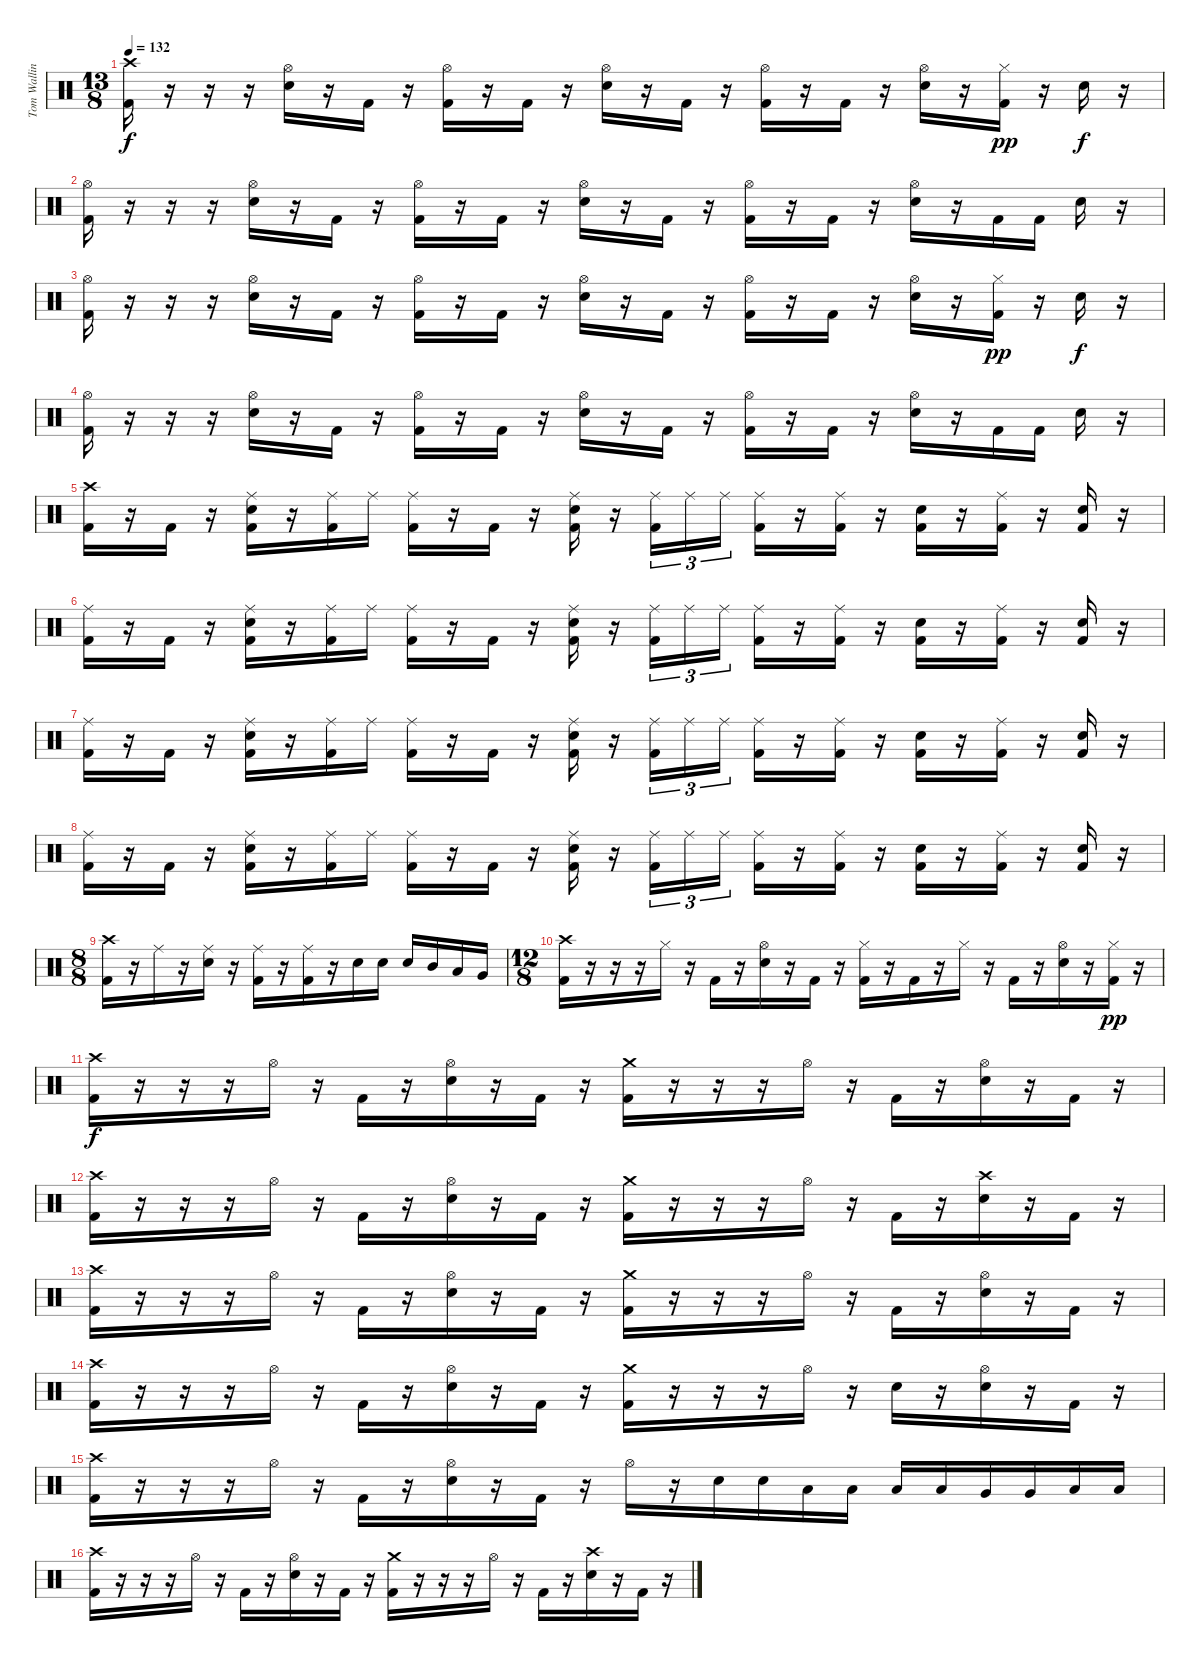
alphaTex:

\track ("Tom Walling [Drums]" "Tom Wallin") {instrument percussion}
\staff {score}
\articulation defaults
\ts (13 8)
\tempo 132
\clef neutral
\ks c
("Crash high (hit)" "Kick (hit) 2").16{dy f} r.16 r.16 r.16 ("Hi-Hat (open)" "Electric Snare (hit)").16 r.16 "Kick (hit) 2".16 r.16 ("Hi-Hat (open)" "Kick (hit) 2").16 r.16 "Kick (hit) 2".16 r.16 ("Hi-Hat (open)" "Electric Snare (hit)").16 r.16 "Kick (hit) 2".16 r.16 ("Hi-Hat (open)" "Kick (hit) 2").16 r.16 "Kick (hit) 2".16 r.16 ("Hi-Hat (open)" "Electric Snare (hit)").16 r.16 ("Hi-Hat (closed)" "Kick (hit) 2").16{dy pp} r.16 "Electric Snare (hit)".16{dy f} r.16 |
("Hi-Hat (open)" "Kick (hit) 2").16 r.16 r.16 r.16 ("Hi-Hat (open)" "Electric Snare (hit)").16 r.16 "Kick (hit) 2".16 r.16 ("Hi-Hat (open)" "Kick (hit) 2").16 r.16 "Kick (hit) 2".16 r.16 ("Hi-Hat (open)" "Electric Snare (hit)").16 r.16 "Kick (hit) 2".16 r.16 ("Hi-Hat (open)" "Kick (hit) 2").16 r.16 "Kick (hit) 2".16 r.16 ("Hi-Hat (open)" "Electric Snare (hit)").16 r.16 "Kick (hit) 2".16 "Kick (hit) 2".16 "Electric Snare (hit)".16 r.16 |
("Hi-Hat (open)" "Kick (hit) 2").16 r.16 r.16 r.16 ("Hi-Hat (open)" "Electric Snare (hit)").16 r.16 "Kick (hit) 2".16 r.16 ("Hi-Hat (open)" "Kick (hit) 2").16 r.16 "Kick (hit) 2".16 r.16 ("Hi-Hat (open)" "Electric Snare (hit)").16 r.16 "Kick (hit) 2".16 r.16 ("Hi-Hat (open)" "Kick (hit) 2").16 r.16 "Kick (hit) 2".16 r.16 ("Hi-Hat (open)" "Electric Snare (hit)").16 r.16 ("Hi-Hat (closed)" "Kick (hit) 2").16{dy pp} r.16 "Electric Snare (hit)".16{dy f} r.16 |
("Hi-Hat (open)" "Kick (hit) 2").16 r.16 r.16 r.16 ("Hi-Hat (open)" "Electric Snare (hit)").16 r.16 "Kick (hit) 2".16 r.16 ("Hi-Hat (open)" "Kick (hit) 2").16 r.16 "Kick (hit) 2".16 r.16 ("Hi-Hat (open)" "Electric Snare (hit)").16 r.16 "Kick (hit) 2".16 r.16 ("Hi-Hat (open)" "Kick (hit) 2").16 r.16 "Kick (hit) 2".16 r.16 ("Hi-Hat (open)" "Electric Snare (hit)").16 r.16 "Kick (hit) 2".16 "Kick (hit) 2".16 "Electric Snare (hit)".16 r.16 |
("Crash high (hit)" "Kick (hit) 2").16 r.16 "Kick (hit) 2".16 r.16 ("Ride (middle)" "Electric Snare (hit)" "Kick (hit) 2").16 r.16 ("Ride (middle)" "Kick (hit) 2").16 "Ride (middle)".16 ("Ride (middle)" "Kick (hit) 2").16 r.16 "Kick (hit) 2".16 r.16 ("Ride (middle)" "Electric Snare (hit)" "Kick (hit) 2").16 r.16 ("Ride (middle)" "Kick (hit) 2").16{tu (3 2)} "Ride (middle)".16{tu (3 2)} "Ride (middle)".16{tu (3 2)} ("Ride (middle)" "Kick (hit) 2").16 r.16 ("Ride (middle)" "Kick (hit) 2").16 r.16 ("Electric Snare (hit)" "Kick (hit) 2").16 r.16 ("Ride (middle)" "Kick (hit) 2").16 r.16 ("Electric Snare (hit)" "Kick (hit) 2").16 r.16 |
("Ride (middle)" "Kick (hit) 2").16 r.16 "Kick (hit) 2".16 r.16 ("Ride (middle)" "Electric Snare (hit)" "Kick (hit) 2").16 r.16 ("Ride (middle)" "Kick (hit) 2").16 "Ride (middle)".16 ("Ride (middle)" "Kick (hit) 2").16 r.16 "Kick (hit) 2".16 r.16 ("Ride (middle)" "Electric Snare (hit)" "Kick (hit) 2").16 r.16 ("Ride (middle)" "Kick (hit) 2").16{tu (3 2)} "Ride (middle)".16{tu (3 2)} "Ride (middle)".16{tu (3 2)} ("Ride (middle)" "Kick (hit) 2").16 r.16 ("Ride (middle)" "Kick (hit) 2").16 r.16 ("Electric Snare (hit)" "Kick (hit) 2").16 r.16 ("Ride (middle)" "Kick (hit) 2").16 r.16 ("Electric Snare (hit)" "Kick (hit) 2").16 r.16 |
("Ride (middle)" "Kick (hit) 2").16 r.16 "Kick (hit) 2".16 r.16 ("Ride (middle)" "Electric Snare (hit)" "Kick (hit) 2").16 r.16 ("Ride (middle)" "Kick (hit) 2").16 "Ride (middle)".16 ("Ride (middle)" "Kick (hit) 2").16 r.16 "Kick (hit) 2".16 r.16 ("Ride (middle)" "Electric Snare (hit)" "Kick (hit) 2").16 r.16 ("Ride (middle)" "Kick (hit) 2").16{tu (3 2)} "Ride (middle)".16{tu (3 2)} "Ride (middle)".16{tu (3 2)} ("Ride (middle)" "Kick (hit) 2").16 r.16 ("Ride (middle)" "Kick (hit) 2").16 r.16 ("Electric Snare (hit)" "Kick (hit) 2").16 r.16 ("Ride (middle)" "Kick (hit) 2").16 r.16 ("Electric Snare (hit)" "Kick (hit) 2").16 r.16 |
("Ride (middle)" "Kick (hit) 2").16 r.16 "Kick (hit) 2".16 r.16 ("Ride (middle)" "Electric Snare (hit)" "Kick (hit) 2").16 r.16 ("Ride (middle)" "Kick (hit) 2").16 "Ride (middle)".16 ("Ride (middle)" "Kick (hit) 2").16 r.16 "Kick (hit) 2".16 r.16 ("Ride (middle)" "Electric Snare (hit)" "Kick (hit) 2").16 r.16 ("Ride (middle)" "Kick (hit) 2").16{tu (3 2)} "Ride (middle)".16{tu (3 2)} "Ride (middle)".16{tu (3 2)} ("Ride (middle)" "Kick (hit) 2").16 r.16 ("Ride (middle)" "Kick (hit) 2").16 r.16 ("Electric Snare (hit)" "Kick (hit) 2").16 r.16 ("Ride (middle)" "Kick (hit) 2").16 r.16 ("Electric Snare (hit)" "Kick (hit) 2").16 r.16 |
\ts (8 8)
("Crash high (hit)" "Kick (hit) 2").16 r.16 "Ride (middle)".16 r.16 ("Ride (middle)" "Electric Snare (hit)").16 r.16 ("Ride (middle)" "Kick (hit) 2").16 r.16 ("Ride (middle)" "Kick (hit) 2").16 r.16 "Electric Snare (hit)".16 "Electric Snare (hit)".16 "Electric Snare (hit)".16 "Mid Tom (hit)".16 "Low Tom (hit)".16 "Very Low Tom (hit)".16 |
\ts (12 8)
("Crash high (hit)" "Kick (hit) 2").16 r.16 r.16 r.16 "Hi-Hat (closed)".16 r.16 "Kick (hit) 2".16 r.16 ("Hi-Hat (open)" "Electric Snare (hit)").16 r.16 "Kick (hit) 2".16 r.16 ("Hi-Hat (closed)" "Kick (hit) 2").16 r.16 "Kick (hit) 2".16 r.16 "Hi-Hat (closed)".16 r.16 "Kick (hit) 2".16 r.16 ("Hi-Hat (open)" "Electric Snare (hit)").16 r.16 ("Hi-Hat (closed)" "Kick (hit) 2").16{dy pp} r.16 |
("Crash high (hit)" "Kick (hit) 2").16{dy f} r.16 r.16 r.16 "Hi-Hat (open)".16 r.16 "Kick (hit) 2".16 r.16 ("Hi-Hat (open)" "Electric Snare (hit)").16 r.16 "Kick (hit) 2".16 r.16 ("Crash medium (hit)" "Kick (hit) 2").16 r.16 r.16 r.16 "Hi-Hat (open)".16 r.16 "Kick (hit) 2".16 r.16 ("Hi-Hat (open)" "Electric Snare (hit)").16 r.16 "Kick (hit) 2".16 r.16 |
("Crash high (hit)" "Kick (hit) 2").16 r.16 r.16 r.16 "Hi-Hat (open)".16 r.16 "Kick (hit) 2".16 r.16 ("Hi-Hat (open)" "Electric Snare (hit)").16 r.16 "Kick (hit) 2".16 r.16 ("Crash medium (hit)" "Kick (hit) 2").16 r.16 r.16 r.16 "Hi-Hat (open)".16 r.16 "Kick (hit) 2".16 r.16 ("Crash high (hit)" "Electric Snare (hit)").16 r.16 "Kick (hit) 2".16 r.16 |
("Crash high (hit)" "Kick (hit) 2").16 r.16 r.16 r.16 "Hi-Hat (open)".16 r.16 "Kick (hit) 2".16 r.16 ("Hi-Hat (open)" "Electric Snare (hit)").16 r.16 "Kick (hit) 2".16 r.16 ("Crash medium (hit)" "Kick (hit) 2").16 r.16 r.16 r.16 "Hi-Hat (open)".16 r.16 "Kick (hit) 2".16 r.16 ("Hi-Hat (open)" "Electric Snare (hit)").16 r.16 "Kick (hit) 2".16 r.16 |
("Crash high (hit)" "Kick (hit) 2").16 r.16 r.16 r.16 "Hi-Hat (open)".16 r.16 "Kick (hit) 2".16 r.16 ("Hi-Hat (open)" "Electric Snare (hit)").16 r.16 "Kick (hit) 2".16 r.16 ("Crash medium (hit)" "Kick (hit) 2").16 r.16 r.16 r.16 "Hi-Hat (open)".16 r.16 "Electric Snare (hit)".16 r.16 ("Hi-Hat (open)" "Electric Snare (hit)").16 r.16 "Kick (hit) 2".16 r.16 |
("Crash high (hit)" "Kick (hit) 2").16 r.16 r.16 r.16 "Hi-Hat (open)".16 r.16 "Kick (hit) 2".16 r.16 ("Hi-Hat (open)" "Electric Snare (hit)").16 r.16 "Kick (hit) 2".16 r.16 "Hi-Hat (open)".16 r.16 "Electric Snare (hit)".16 "Electric Snare (hit)".16 "Low Tom (hit)".16 "Low Tom (hit)".16 "Low Tom (hit)".16 "Low Tom (hit)".16 "Very Low Tom (hit)".16 "Very Low Tom (hit)".16 "Low Floor Tom (hit)".16 "Low Floor Tom (hit)".16 |
("Crash high (hit)" "Kick (hit) 2").16 r.16 r.16 r.16 "Hi-Hat (open)".16 r.16 "Kick (hit) 2".16 r.16 ("Hi-Hat (open)" "Electric Snare (hit)").16 r.16 "Kick (hit) 2".16 r.16 ("Crash medium (hit)" "Kick (hit) 2").16 r.16 r.16 r.16 "Hi-Hat (open)".16 r.16 "Kick (hit) 2".16 r.16 ("Crash high (hit)" "Electric Snare (hit)").16 r.16 "Kick (hit) 2".16 r.16
